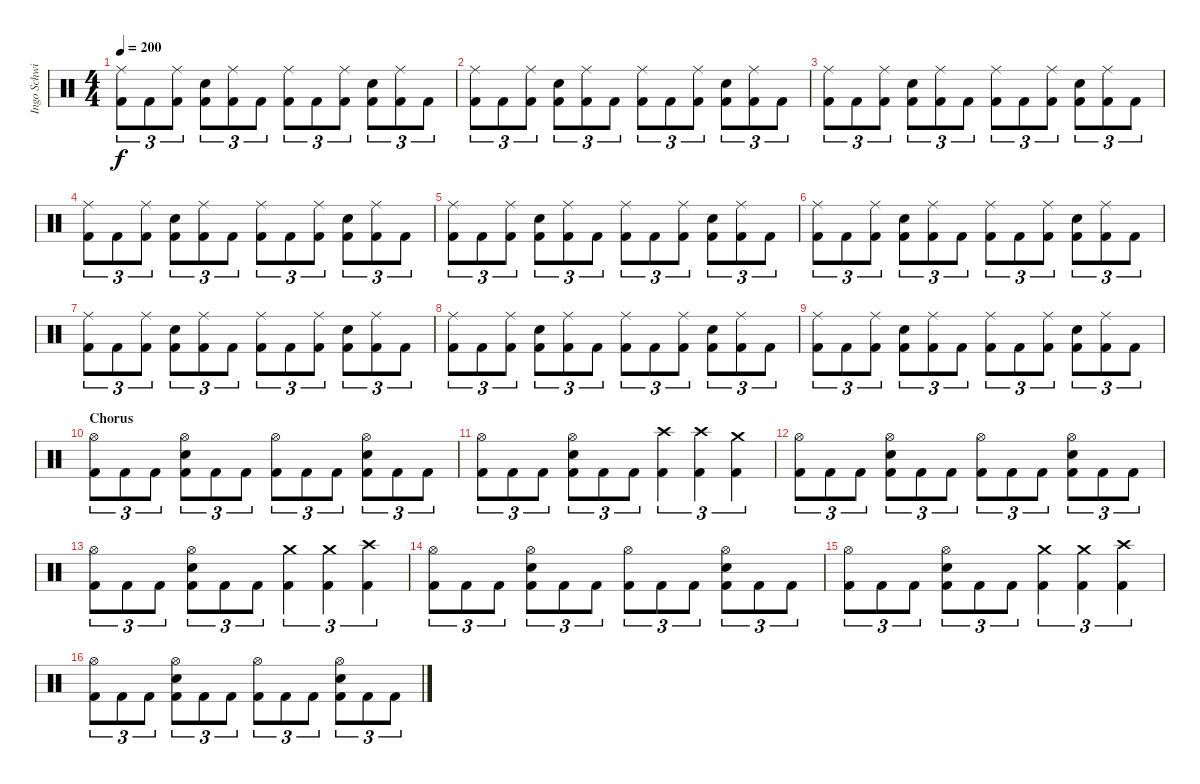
\track ("Ingo Schwichtenberg" "Ingo Schwi") {instrument percussion}
\staff {score}
\articulation defaults
\ts (4 4)
\tempo 200
\clef neutral
\ks c
("Ride (middle)" "Kick (hit) 2").8{tu (3 2) dy f} "Kick (hit) 2".8{tu (3 2)} ("Ride (middle)" "Kick (hit) 2").8{tu (3 2)} ("Snare (hit) 2" "Kick (hit) 2").8{tu (3 2)} ("Ride (middle)" "Kick (hit) 2").8{tu (3 2)} "Kick (hit) 2".8{tu (3 2)} ("Ride (middle)" "Kick (hit) 2").8{tu (3 2)} "Kick (hit) 2".8{tu (3 2)} ("Ride (middle)" "Kick (hit) 2").8{tu (3 2)} ("Snare (hit) 2" "Kick (hit) 2").8{tu (3 2)} ("Ride (middle)" "Kick (hit) 2").8{tu (3 2)} "Kick (hit) 2".8{tu (3 2)} |
("Ride (middle)" "Kick (hit) 2").8{tu (3 2)} "Kick (hit) 2".8{tu (3 2)} ("Ride (middle)" "Kick (hit) 2").8{tu (3 2)} ("Snare (hit) 2" "Kick (hit) 2").8{tu (3 2)} ("Ride (middle)" "Kick (hit) 2").8{tu (3 2)} "Kick (hit) 2".8{tu (3 2)} ("Ride (middle)" "Kick (hit) 2").8{tu (3 2)} "Kick (hit) 2".8{tu (3 2)} ("Ride (middle)" "Kick (hit) 2").8{tu (3 2)} ("Snare (hit) 2" "Kick (hit) 2").8{tu (3 2)} ("Ride (middle)" "Kick (hit) 2").8{tu (3 2)} "Kick (hit) 2".8{tu (3 2)} |
("Ride (middle)" "Kick (hit) 2").8{tu (3 2)} "Kick (hit) 2".8{tu (3 2)} ("Ride (middle)" "Kick (hit) 2").8{tu (3 2)} ("Snare (hit) 2" "Kick (hit) 2").8{tu (3 2)} ("Ride (middle)" "Kick (hit) 2").8{tu (3 2)} "Kick (hit) 2".8{tu (3 2)} ("Ride (middle)" "Kick (hit) 2").8{tu (3 2)} "Kick (hit) 2".8{tu (3 2)} ("Ride (middle)" "Kick (hit) 2").8{tu (3 2)} ("Snare (hit) 2" "Kick (hit) 2").8{tu (3 2)} ("Ride (middle)" "Kick (hit) 2").8{tu (3 2)} "Kick (hit) 2".8{tu (3 2)} |
("Ride (middle)" "Kick (hit) 2").8{tu (3 2)} "Kick (hit) 2".8{tu (3 2)} ("Ride (middle)" "Kick (hit) 2").8{tu (3 2)} ("Snare (hit) 2" "Kick (hit) 2").8{tu (3 2)} ("Ride (middle)" "Kick (hit) 2").8{tu (3 2)} "Kick (hit) 2".8{tu (3 2)} ("Ride (middle)" "Kick (hit) 2").8{tu (3 2)} "Kick (hit) 2".8{tu (3 2)} ("Ride (middle)" "Kick (hit) 2").8{tu (3 2)} ("Snare (hit) 2" "Kick (hit) 2").8{tu (3 2)} ("Ride (middle)" "Kick (hit) 2").8{tu (3 2)} "Kick (hit) 2".8{tu (3 2)} |
("Ride (middle)" "Kick (hit) 2").8{tu (3 2)} "Kick (hit) 2".8{tu (3 2)} ("Ride (middle)" "Kick (hit) 2").8{tu (3 2)} ("Snare (hit) 2" "Kick (hit) 2").8{tu (3 2)} ("Ride (middle)" "Kick (hit) 2").8{tu (3 2)} "Kick (hit) 2".8{tu (3 2)} ("Ride (middle)" "Kick (hit) 2").8{tu (3 2)} "Kick (hit) 2".8{tu (3 2)} ("Ride (middle)" "Kick (hit) 2").8{tu (3 2)} ("Snare (hit) 2" "Kick (hit) 2").8{tu (3 2)} ("Ride (middle)" "Kick (hit) 2").8{tu (3 2)} "Kick (hit) 2".8{tu (3 2)} |
("Ride (middle)" "Kick (hit) 2").8{tu (3 2)} "Kick (hit) 2".8{tu (3 2)} ("Ride (middle)" "Kick (hit) 2").8{tu (3 2)} ("Snare (hit) 2" "Kick (hit) 2").8{tu (3 2)} ("Ride (middle)" "Kick (hit) 2").8{tu (3 2)} "Kick (hit) 2".8{tu (3 2)} ("Ride (middle)" "Kick (hit) 2").8{tu (3 2)} "Kick (hit) 2".8{tu (3 2)} ("Ride (middle)" "Kick (hit) 2").8{tu (3 2)} ("Snare (hit) 2" "Kick (hit) 2").8{tu (3 2)} ("Ride (middle)" "Kick (hit) 2").8{tu (3 2)} "Kick (hit) 2".8{tu (3 2)} |
("Ride (middle)" "Kick (hit) 2").8{tu (3 2)} "Kick (hit) 2".8{tu (3 2)} ("Ride (middle)" "Kick (hit) 2").8{tu (3 2)} ("Snare (hit) 2" "Kick (hit) 2").8{tu (3 2)} ("Ride (middle)" "Kick (hit) 2").8{tu (3 2)} "Kick (hit) 2".8{tu (3 2)} ("Ride (middle)" "Kick (hit) 2").8{tu (3 2)} "Kick (hit) 2".8{tu (3 2)} ("Ride (middle)" "Kick (hit) 2").8{tu (3 2)} ("Snare (hit) 2" "Kick (hit) 2").8{tu (3 2)} ("Ride (middle)" "Kick (hit) 2").8{tu (3 2)} "Kick (hit) 2".8{tu (3 2)} |
("Ride (middle)" "Kick (hit) 2").8{tu (3 2)} "Kick (hit) 2".8{tu (3 2)} ("Ride (middle)" "Kick (hit) 2").8{tu (3 2)} ("Snare (hit) 2" "Kick (hit) 2").8{tu (3 2)} ("Ride (middle)" "Kick (hit) 2").8{tu (3 2)} "Kick (hit) 2".8{tu (3 2)} ("Ride (middle)" "Kick (hit) 2").8{tu (3 2)} "Kick (hit) 2".8{tu (3 2)} ("Ride (middle)" "Kick (hit) 2").8{tu (3 2)} ("Snare (hit) 2" "Kick (hit) 2").8{tu (3 2)} ("Ride (middle)" "Kick (hit) 2").8{tu (3 2)} "Kick (hit) 2".8{tu (3 2)} |
("Ride (middle)" "Kick (hit) 2").8{tu (3 2)} "Kick (hit) 2".8{tu (3 2)} ("Ride (middle)" "Kick (hit) 2").8{tu (3 2)} ("Snare (hit) 2" "Kick (hit) 2").8{tu (3 2)} ("Ride (middle)" "Kick (hit) 2").8{tu (3 2)} "Kick (hit) 2".8{tu (3 2)} ("Ride (middle)" "Kick (hit) 2").8{tu (3 2)} "Kick (hit) 2".8{tu (3 2)} ("Ride (middle)" "Kick (hit) 2").8{tu (3 2)} ("Snare (hit) 2" "Kick (hit) 2").8{tu (3 2)} ("Ride (middle)" "Kick (hit) 2").8{tu (3 2)} "Kick (hit) 2".8{tu (3 2)} |
\section ("" "Chorus")
("Hi-Hat (open)" "Kick (hit) 2").8{tu (3 2)} "Kick (hit) 2".8{tu (3 2)} "Kick (hit) 2".8{tu (3 2)} ("Hi-Hat (open)" "Snare (hit) 2" "Kick (hit) 2").8{tu (3 2)} "Kick (hit) 2".8{tu (3 2)} "Kick (hit) 2".8{tu (3 2)} ("Hi-Hat (open)" "Kick (hit) 2").8{tu (3 2)} "Kick (hit) 2".8{tu (3 2)} "Kick (hit) 2".8{tu (3 2)} ("Hi-Hat (open)" "Snare (hit) 2" "Kick (hit) 2").8{tu (3 2)} "Kick (hit) 2".8{tu (3 2)} "Kick (hit) 2".8{tu (3 2)} |
("Hi-Hat (open)" "Kick (hit) 2").8{tu (3 2)} "Kick (hit) 2".8{tu (3 2)} "Kick (hit) 2".8{tu (3 2)} ("Hi-Hat (open)" "Snare (hit) 2" "Kick (hit) 2").8{tu (3 2)} "Kick (hit) 2".8{tu (3 2)} "Kick (hit) 2".8{tu (3 2)} ("Crash high (hit)" "Kick (hit) 2").4{tu (3 2)} ("Crash high (hit)" "Kick (hit) 2").4{tu (3 2)} ("Crash medium (hit)" "Kick (hit) 2").4{tu (3 2)} |
("Hi-Hat (open)" "Kick (hit) 2").8{tu (3 2)} "Kick (hit) 2".8{tu (3 2)} "Kick (hit) 2".8{tu (3 2)} ("Hi-Hat (open)" "Snare (hit) 2" "Kick (hit) 2").8{tu (3 2)} "Kick (hit) 2".8{tu (3 2)} "Kick (hit) 2".8{tu (3 2)} ("Hi-Hat (open)" "Kick (hit) 2").8{tu (3 2)} "Kick (hit) 2".8{tu (3 2)} "Kick (hit) 2".8{tu (3 2)} ("Hi-Hat (open)" "Snare (hit) 2" "Kick (hit) 2").8{tu (3 2)} "Kick (hit) 2".8{tu (3 2)} "Kick (hit) 2".8{tu (3 2)} |
("Hi-Hat (open)" "Kick (hit) 2").8{tu (3 2)} "Kick (hit) 2".8{tu (3 2)} "Kick (hit) 2".8{tu (3 2)} ("Hi-Hat (open)" "Snare (hit) 2" "Kick (hit) 2").8{tu (3 2)} "Kick (hit) 2".8{tu (3 2)} "Kick (hit) 2".8{tu (3 2)} ("Crash medium (hit)" "Kick (hit) 2").4{tu (3 2)} ("Crash medium (hit)" "Kick (hit) 2").4{tu (3 2)} ("Crash high (hit)" "Kick (hit) 2").4{tu (3 2)} |
("Hi-Hat (open)" "Kick (hit) 2").8{tu (3 2)} "Kick (hit) 2".8{tu (3 2)} "Kick (hit) 2".8{tu (3 2)} ("Hi-Hat (open)" "Snare (hit) 2" "Kick (hit) 2").8{tu (3 2)} "Kick (hit) 2".8{tu (3 2)} "Kick (hit) 2".8{tu (3 2)} ("Hi-Hat (open)" "Kick (hit) 2").8{tu (3 2)} "Kick (hit) 2".8{tu (3 2)} "Kick (hit) 2".8{tu (3 2)} ("Hi-Hat (open)" "Snare (hit) 2" "Kick (hit) 2").8{tu (3 2)} "Kick (hit) 2".8{tu (3 2)} "Kick (hit) 2".8{tu (3 2)} |
("Hi-Hat (open)" "Kick (hit) 2").8{tu (3 2)} "Kick (hit) 2".8{tu (3 2)} "Kick (hit) 2".8{tu (3 2)} ("Hi-Hat (open)" "Snare (hit) 2" "Kick (hit) 2").8{tu (3 2)} "Kick (hit) 2".8{tu (3 2)} "Kick (hit) 2".8{tu (3 2)} ("Crash medium (hit)" "Kick (hit) 2").4{tu (3 2)} ("Crash medium (hit)" "Kick (hit) 2").4{tu (3 2)} ("Crash high (hit)" "Kick (hit) 2").4{tu (3 2)} |
("Hi-Hat (open)" "Kick (hit) 2").8{tu (3 2)} "Kick (hit) 2".8{tu (3 2)} "Kick (hit) 2".8{tu (3 2)} ("Hi-Hat (open)" "Snare (hit) 2" "Kick (hit) 2").8{tu (3 2)} "Kick (hit) 2".8{tu (3 2)} "Kick (hit) 2".8{tu (3 2)} ("Hi-Hat (open)" "Kick (hit) 2").8{tu (3 2)} "Kick (hit) 2".8{tu (3 2)} "Kick (hit) 2".8{tu (3 2)} ("Hi-Hat (open)" "Snare (hit) 2" "Kick (hit) 2").8{tu (3 2)} "Kick (hit) 2".8{tu (3 2)} "Kick (hit) 2".8{tu (3 2)}
